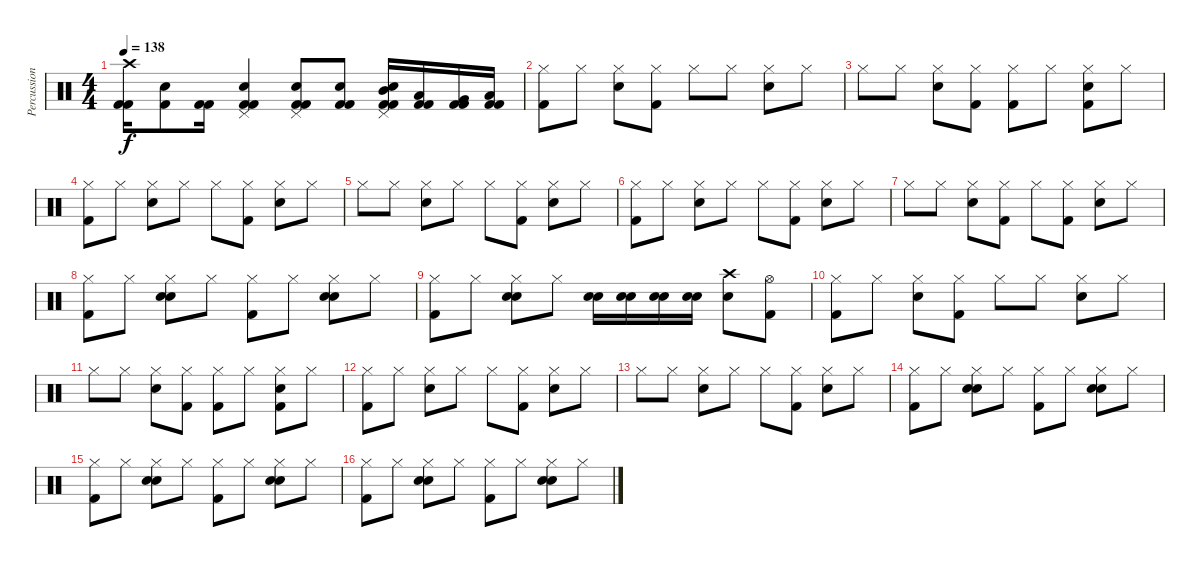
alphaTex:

\track ("Percussion" "Percussion") {instrument percussion}
\staff {score}
\articulation defaults
\ts (4 4)
\tempo 138
\clef neutral
\ks c
("Crash high (hit)" "Kick (hit) 2" "Kick (hit) 2").16{dy f} ("Snare (hit) 2" "Kick (hit) 2").8 ("Kick (hit) 2" "Kick (hit) 2").16 ("Pedal Hi-Hat (hit)" "Snare (hit) 2" "Kick (hit) 2" "Kick (hit) 2").4 ("Pedal Hi-Hat (hit)" "Snare (hit) 2" "Kick (hit) 2" "Kick (hit) 2").8 ("Snare (hit) 2" "Kick (hit) 2" "Kick (hit) 2").8 ("Pedal Hi-Hat (hit)" "Mid Tom (hit)" "Snare (hit) 2" "Kick (hit) 2" "Kick (hit) 2").16 ("Low Tom (hit)" "Kick (hit) 2" "Kick (hit) 2").16 ("Very Low Tom (hit)" "Kick (hit) 2" "Kick (hit) 2").16 ("Low Floor Tom (hit)" "Kick (hit) 2" "Kick (hit) 2").16 |
("Hi-Hat (closed)" "Kick (hit) 2").8 "Hi-Hat (closed)".8 ("Hi-Hat (closed)" "Snare (hit) 2").8 ("Hi-Hat (closed)" "Kick (hit) 2").8 "Hi-Hat (closed)".8 "Hi-Hat (closed)".8 ("Hi-Hat (closed)" "Snare (hit) 2").8 "Hi-Hat (closed)".8 |
"Hi-Hat (closed)".8 "Hi-Hat (closed)".8 ("Hi-Hat (closed)" "Snare (hit) 2").8 ("Hi-Hat (closed)" "Kick (hit) 2").8 ("Hi-Hat (closed)" "Kick (hit) 2").8 "Hi-Hat (closed)".8 ("Hi-Hat (closed)" "Snare (hit) 2" "Kick (hit) 2").8 "Hi-Hat (closed)".8 |
("Hi-Hat (closed)" "Kick (hit) 2").8 "Hi-Hat (closed)".8 ("Hi-Hat (closed)" "Snare (hit) 2").8 "Hi-Hat (closed)".8 "Hi-Hat (closed)".8 ("Hi-Hat (closed)" "Kick (hit) 2").8 ("Hi-Hat (closed)" "Snare (hit) 2").8 "Hi-Hat (closed)".8 |
"Hi-Hat (closed)".8 "Hi-Hat (closed)".8 ("Hi-Hat (closed)" "Snare (hit) 2").8 "Hi-Hat (closed)".8 "Hi-Hat (closed)".8 ("Hi-Hat (closed)" "Kick (hit) 2").8 ("Hi-Hat (closed)" "Snare (hit) 2").8 "Hi-Hat (closed)".8 |
("Hi-Hat (closed)" "Kick (hit) 2").8 "Hi-Hat (closed)".8 ("Hi-Hat (closed)" "Snare (hit) 2").8 "Hi-Hat (closed)".8 "Hi-Hat (closed)".8 ("Hi-Hat (closed)" "Kick (hit) 2").8 ("Hi-Hat (closed)" "Snare (hit) 2").8 "Hi-Hat (closed)".8 |
"Hi-Hat (closed)".8 "Hi-Hat (closed)".8 ("Hi-Hat (closed)" "Snare (hit) 2").8 ("Hi-Hat (closed)" "Kick (hit) 2").8 "Hi-Hat (closed)".8 ("Hi-Hat (closed)" "Kick (hit) 2").8 ("Hi-Hat (closed)" "Snare (hit) 2").8 "Hi-Hat (closed)".8 |
("Hi-Hat (closed)" "Kick (hit) 2").8 "Hi-Hat (closed)".8 ("Hi-Hat (closed)" "Snare (hit) 2" "Snare (hit) 2").8 "Hi-Hat (closed)".8 ("Hi-Hat (closed)" "Kick (hit) 2").8 "Hi-Hat (closed)".8 ("Hi-Hat (closed)" "Snare (hit) 2" "Snare (hit) 2").8 "Hi-Hat (closed)".8 |
("Hi-Hat (closed)" "Kick (hit) 2").8 "Hi-Hat (closed)".8 ("Hi-Hat (closed)" "Snare (hit) 2" "Snare (hit) 2").8 "Hi-Hat (closed)".8 ("Snare (hit) 2" "Snare (hit) 2").16 ("Snare (hit) 2" "Snare (hit) 2").16 ("Snare (hit) 2" "Snare (hit) 2").16 ("Snare (hit) 2" "Snare (hit) 2").16 ("Crash high (hit)" "Snare (hit) 2").8 ("Hi-Hat (open)" "Kick (hit) 2").8 |
("Hi-Hat (closed)" "Kick (hit) 2").8 "Hi-Hat (closed)".8 ("Hi-Hat (closed)" "Snare (hit) 2").8 ("Hi-Hat (closed)" "Kick (hit) 2").8 "Hi-Hat (closed)".8 "Hi-Hat (closed)".8 ("Hi-Hat (closed)" "Snare (hit) 2").8 "Hi-Hat (closed)".8 |
"Hi-Hat (closed)".8 "Hi-Hat (closed)".8 ("Hi-Hat (closed)" "Snare (hit) 2").8 ("Hi-Hat (closed)" "Kick (hit) 2").8 ("Hi-Hat (closed)" "Kick (hit) 2").8 "Hi-Hat (closed)".8 ("Hi-Hat (closed)" "Snare (hit) 2" "Kick (hit) 2").8 "Hi-Hat (closed)".8 |
("Hi-Hat (closed)" "Kick (hit) 2").8 "Hi-Hat (closed)".8 ("Hi-Hat (closed)" "Snare (hit) 2").8 "Hi-Hat (closed)".8 "Hi-Hat (closed)".8 ("Hi-Hat (closed)" "Kick (hit) 2").8 ("Hi-Hat (closed)" "Snare (hit) 2").8 "Hi-Hat (closed)".8 |
"Hi-Hat (closed)".8 "Hi-Hat (closed)".8 ("Hi-Hat (closed)" "Snare (hit) 2").8 "Hi-Hat (closed)".8 "Hi-Hat (closed)".8 ("Hi-Hat (closed)" "Kick (hit) 2").8 ("Hi-Hat (closed)" "Snare (hit) 2").8 "Hi-Hat (closed)".8 |
("Hi-Hat (closed)" "Kick (hit) 2").8 "Hi-Hat (closed)".8 ("Hi-Hat (closed)" "Snare (hit) 2" "Snare (hit) 2").8 "Hi-Hat (closed)".8 ("Hi-Hat (closed)" "Kick (hit) 2").8 "Hi-Hat (closed)".8 ("Hi-Hat (closed)" "Snare (hit) 2" "Snare (hit) 2").8 "Hi-Hat (closed)".8 |
("Hi-Hat (closed)" "Kick (hit) 2").8 "Hi-Hat (closed)".8 ("Hi-Hat (closed)" "Snare (hit) 2" "Snare (hit) 2").8 "Hi-Hat (closed)".8 ("Hi-Hat (closed)" "Kick (hit) 2").8 "Hi-Hat (closed)".8 ("Hi-Hat (closed)" "Snare (hit) 2" "Snare (hit) 2").8 "Hi-Hat (closed)".8 |
("Hi-Hat (closed)" "Kick (hit) 2").8 "Hi-Hat (closed)".8 ("Hi-Hat (closed)" "Snare (hit) 2" "Snare (hit) 2").8 "Hi-Hat (closed)".8 ("Hi-Hat (closed)" "Kick (hit) 2").8 "Hi-Hat (closed)".8 ("Hi-Hat (closed)" "Snare (hit) 2" "Snare (hit) 2").8 "Hi-Hat (closed)".8
